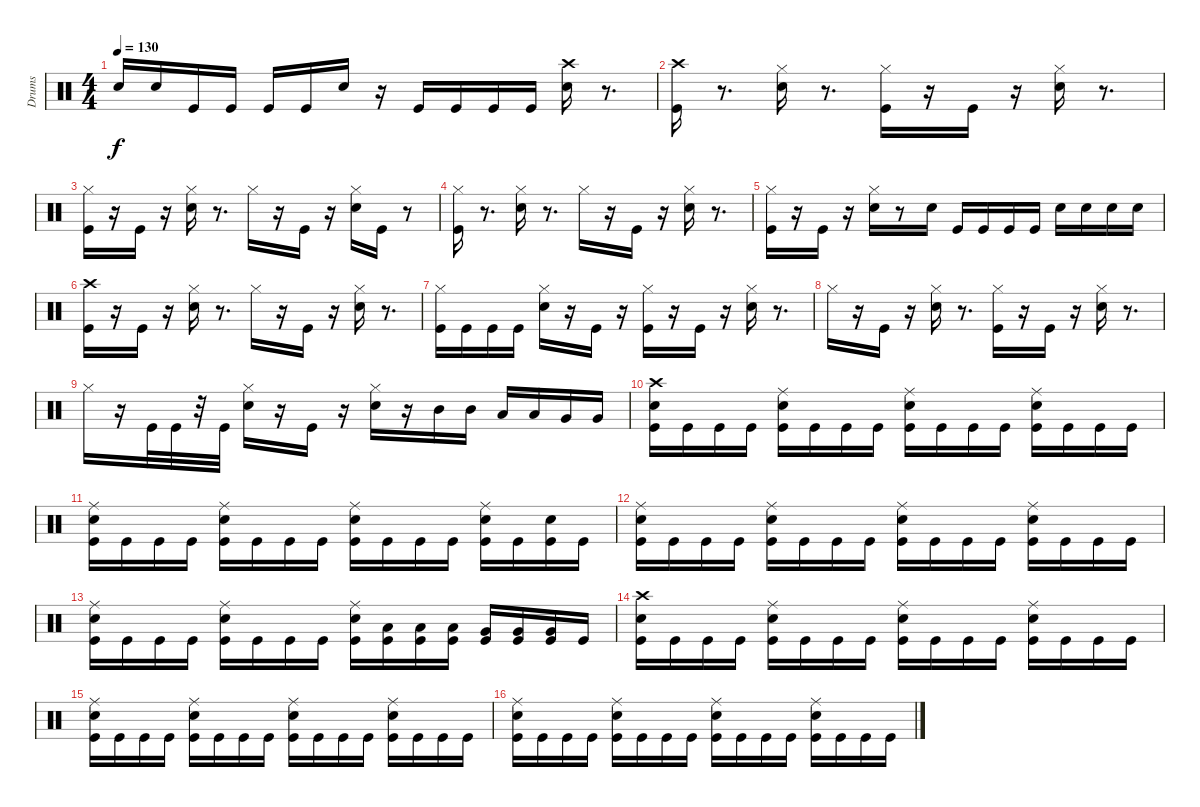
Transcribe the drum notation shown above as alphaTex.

\track ("Drums" "Drums") {instrument percussion}
\staff {score}
\articulation defaults
\ts (4 4)
\tempo 130
\clef neutral
\ks c "Snare (hit) 2".16{dy f} "Snare (hit) 2".16 "Kick (hit)".16 "Kick (hit)".16 "Kick (hit)".16 "Kick (hit)".16 "Snare (hit) 2".16
r.16 "Kick (hit)".16 "Kick (hit)".16 "Kick (hit)".16 "Kick (hit)".16 ("Crash high (hit)" "Snare (hit) 2").16 r.8{d} |
("Crash high (hit)" "Kick (hit)").16 r.8{d} ("Hi-Hat (closed)" "Snare (hit) 2").16 r.8{d} ("Kick (hit)" "Hi-Hat (closed)").16 r.16 "Kick (hit)".16 r.16 ("Snare (hit) 2" "Hi-Hat (closed)").16 r.8{d} |
("Hi-Hat (closed)" "Kick (hit)").16 r.16 "Kick (hit)".16 r.16 ("Snare (hit) 2" "Hi-Hat (closed)").16 r.8{d} "Hi-Hat (closed)".16 r.16 "Kick (hit)".16 r.16 ("Snare (hit) 2" "Hi-Hat (closed)").16 "Kick (hit)".16 r.8 |
("Hi-Hat (closed)" "Kick (hit)").16 r.8{d} ("Snare (hit) 2" "Hi-Hat (closed)").16 r.8{d} "Hi-Hat (closed)".16 r.16 "Kick (hit)".16 r.16 ("Snare (hit) 2" "Hi-Hat (closed)").16 r.8{d} |
("Kick (hit)" "Hi-Hat (closed)").16 r.16 "Kick (hit)".16 r.16 ("Hi-Hat (closed)" "Snare (hit) 2").16 r.8 "Snare (hit) 2".16 "Kick (hit)".16 "Kick (hit)".16 "Kick (hit)".16 "Kick (hit)".16 "Snare (hit) 2".16 "Snare (hit) 2".16 "Snare (hit) 2".16 "Snare (hit) 2".16 |
("Crash high (hit)" "Kick (hit)").16 r.16 "Kick (hit)".16 r.16 ("Snare (hit) 2" "Hi-Hat (closed)").16 r.8{d} "Hi-Hat (closed)".16 r.16 "Kick (hit)".16 r.16 ("Snare (hit) 2" "Hi-Hat (closed)").16 r.8{d} |
("Kick (hit)" "Hi-Hat (closed)").16 "Kick (hit)".16 "Kick (hit)".16 "Kick (hit)".16 ("Snare (hit) 2" "Hi-Hat (closed)").16 r.16 "Kick (hit)".16 r.16 ("Hi-Hat (closed)" "Kick (hit)").16 r.16 "Kick (hit)".16 r.16 ("Snare (hit) 2" "Hi-Hat (closed)").16 r.8{d} |
"Hi-Hat (closed)".16 r.16 "Kick (hit)".16 r.16 ("Snare (hit) 2" "Hi-Hat (closed)").16 r.8{d} ("Kick (hit)" "Hi-Hat (closed)").16 r.16 "Kick (hit)".16 r.16 ("Snare (hit) 2" "Hi-Hat (closed)").16 r.8{d} |
"Hi-Hat (closed)".16 r.16 "Kick (hit)".32 "Kick (hit)".32 r.32 "Kick (hit)".32 ("Snare (hit) 2" "Hi-Hat (closed)").16 r.16 "Kick (hit)".16 r.16 ("Hi-Hat (closed)" "Snare (hit) 2").16 r.16 "Mid Tom (hit)".16 "Mid Tom (hit)".16 "Low Tom (hit)".16 "Low Tom (hit)".16 "Very Low Tom (hit)".16 "Very Low Tom (hit)".16 |
("Kick (hit)" "Snare (hit) 2" "Crash high (hit)").16 "Kick (hit)".16 "Kick (hit)".16 "Kick (hit)".16 ("Kick (hit)" "Snare (hit) 2" "Ride (middle)").16 "Kick (hit)".16 "Kick (hit)".16 "Kick (hit)".16 ("Kick (hit)" "Snare (hit) 2" "Ride (middle)").16 "Kick (hit)".16 "Kick (hit)".16 "Kick (hit)".16 ("Kick (hit)" "Snare (hit) 2" "Ride (middle)").16 "Kick (hit)".16 "Kick (hit)".16 "Kick (hit)".16 |
("Kick (hit)" "Snare (hit) 2" "Ride (middle)").16 "Kick (hit)".16 "Kick (hit)".16 "Kick (hit)".16 ("Kick (hit)" "Snare (hit) 2" "Ride (middle)").16 "Kick (hit)".16 "Kick (hit)".16 "Kick (hit)".16 ("Kick (hit)" "Snare (hit) 2" "Ride (middle)").16 "Kick (hit)".16 "Kick (hit)".16 "Kick (hit)".16 ("Snare (hit) 2" "Ride (middle)" "Kick (hit)").16 "Kick (hit)".16 ("Kick (hit)" "Snare (hit) 2").16 "Kick (hit)".16 |
("Kick (hit)" "Snare (hit) 2" "Ride (middle)").16 "Kick (hit)".16 "Kick (hit)".16 "Kick (hit)".16 ("Kick (hit)" "Snare (hit) 2" "Ride (middle)").16 "Kick (hit)".16 "Kick (hit)".16 "Kick (hit)".16 ("Kick (hit)" "Snare (hit) 2" "Ride (middle)").16 "Kick (hit)".16 "Kick (hit)".16 "Kick (hit)".16 ("Kick (hit)" "Snare (hit) 2" "Ride (middle)").16 "Kick (hit)".16 "Kick (hit)".16 "Kick (hit)".16 |
("Kick (hit)" "Snare (hit) 2" "Ride (middle)").16 "Kick (hit)".16 "Kick (hit)".16 "Kick (hit)".16 ("Kick (hit)" "Snare (hit) 2" "Ride (middle)").16 "Kick (hit)".16 "Kick (hit)".16 "Kick (hit)".16 ("Ride (middle)" "Snare (hit) 2" "Kick (hit)").16 ("Low Tom (hit)" "Kick (hit)").16 ("Low Tom (hit)" "Kick (hit)").16 ("Low Tom (hit)" "Kick (hit)").16 ("Very Low Tom (hit)" "Kick (hit)").16 ("Very Low Tom (hit)" "Kick (hit)").16 ("Very Low Tom (hit)" "Kick (hit)").16 "Kick (hit)".16 |
("Kick (hit)" "Snare (hit) 2" "Crash high (hit)").16 "Kick (hit)".16 "Kick (hit)".16 "Kick (hit)".16 ("Kick (hit)" "Snare (hit) 2" "Ride (middle)").16 "Kick (hit)".16 "Kick (hit)".16 "Kick (hit)".16 ("Kick (hit)" "Snare (hit) 2" "Ride (middle)").16 "Kick (hit)".16 "Kick (hit)".16 "Kick (hit)".16 ("Kick (hit)" "Snare (hit) 2" "Ride (middle)").16 "Kick (hit)".16 "Kick (hit)".16 "Kick (hit)".16 |
("Kick (hit)" "Snare (hit) 2" "Ride (middle)").16 "Kick (hit)".16 "Kick (hit)".16 "Kick (hit)".16 ("Kick (hit)" "Snare (hit) 2" "Ride (middle)").16 "Kick (hit)".16 "Kick (hit)".16 "Kick (hit)".16 ("Kick (hit)" "Snare (hit) 2" "Ride (middle)").16 "Kick (hit)".16 "Kick (hit)".16 "Kick (hit)".16 ("Kick (hit)" "Snare (hit) 2" "Ride (middle)").16 "Kick (hit)".16 "Kick (hit)".16 "Kick (hit)".16 |
("Kick (hit)" "Snare (hit) 2" "Ride (middle)").16 "Kick (hit)".16 "Kick (hit)".16 "Kick (hit)".16 ("Kick (hit)" "Snare (hit) 2" "Ride (middle)").16 "Kick (hit)".16 "Kick (hit)".16 "Kick (hit)".16 ("Kick (hit)" "Snare (hit) 2" "Ride (middle)").16 "Kick (hit)".16 "Kick (hit)".16 "Kick (hit)".16 ("Kick (hit)" "Snare (hit) 2" "Ride (middle)").16 "Kick (hit)".16 "Kick (hit)".16 "Kick (hit)".16
